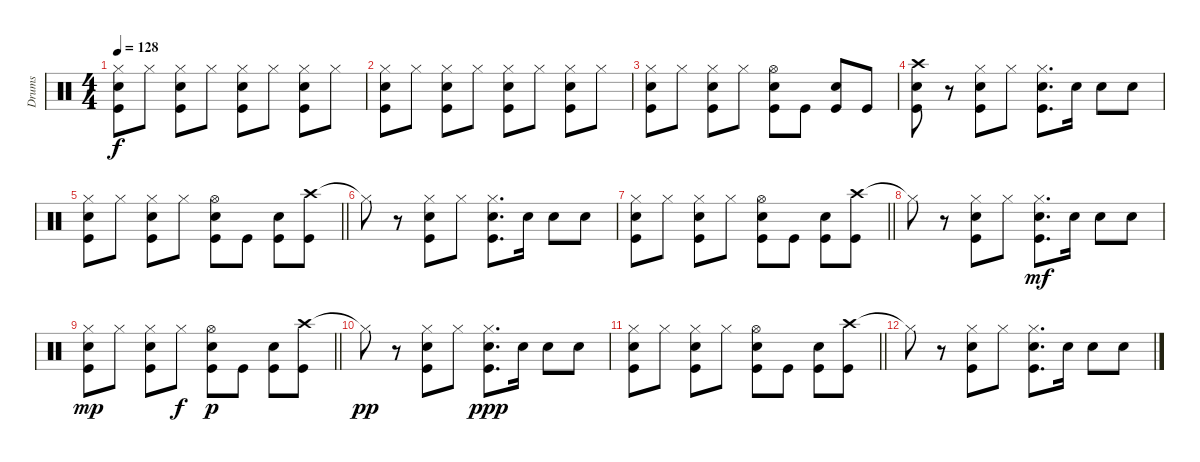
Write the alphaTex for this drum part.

\track ("Drums" "Drums") {instrument percussion}
\staff {score}
\articulation defaults
\ts (4 4)
\tempo 128
\clef neutral
\ks c
("Hi-Hat (closed)" "Snare (hit) 2" "Kick (hit)").8{dy f} "Hi-Hat (closed)".8 ("Hi-Hat (closed)" "Snare (hit) 2" "Kick (hit)").8 "Hi-Hat (closed)".8 ("Hi-Hat (closed)" "Snare (hit) 2" "Kick (hit)").8 "Hi-Hat (closed)".8 ("Hi-Hat (closed)" "Snare (hit) 2" "Kick (hit)").8 "Hi-Hat (closed)".8 |
("Hi-Hat (closed)" "Snare (hit) 2" "Kick (hit)").8 "Hi-Hat (closed)".8 ("Hi-Hat (closed)" "Snare (hit) 2" "Kick (hit)").8 "Hi-Hat (closed)".8 ("Hi-Hat (closed)" "Snare (hit) 2" "Kick (hit)").8 "Hi-Hat (closed)".8 ("Hi-Hat (closed)" "Snare (hit) 2" "Kick (hit)").8 "Hi-Hat (closed)".8 |
("Hi-Hat (closed)" "Snare (hit) 2" "Kick (hit)").8 "Hi-Hat (closed)".8 ("Hi-Hat (closed)" "Snare (hit) 2" "Kick (hit)").8 "Hi-Hat (closed)".8 ("Hi-Hat (open)" "Snare (hit) 2" "Kick (hit)").8 "Kick (hit)".8 ("Snare (hit) 2" "Kick (hit)").8 "Kick (hit)".8 |
("Crash high (hit)" "Snare (hit) 2" "Kick (hit)").8 r.8 ("Hi-Hat (closed)" "Snare (hit) 2" "Kick (hit)").8 "Hi-Hat (closed)".8 ("Hi-Hat (closed)" "Kick (hit)" "Snare (hit) 2").8{d} "Snare (hit) 2".16 "Snare (hit) 2".8 "Snare (hit) 2".8 |
\barLineRight lightlight
("Hi-Hat (closed)" "Snare (hit) 2" "Kick (hit)").8 "Hi-Hat (closed)".8 ("Hi-Hat (closed)" "Snare (hit) 2" "Kick (hit)").8 "Hi-Hat (closed)".8 ("Hi-Hat (open)" "Snare (hit) 2" "Kick (hit)").8 "Kick (hit)".8 ("Snare (hit) 2" "Kick (hit)").8 ("Crash high (hit)" "Kick (hit)").8 |
"Hi-Hat (closed)"{t}.8 r.8 ("Hi-Hat (closed)" "Snare (hit) 2" "Kick (hit)").8 "Hi-Hat (closed)".8 ("Hi-Hat (closed)" "Kick (hit)" "Snare (hit) 2").8{d} "Snare (hit) 2".16 "Snare (hit) 2".8 "Snare (hit) 2".8 |
\barLineRight lightlight
("Hi-Hat (closed)" "Snare (hit) 2" "Kick (hit)").8 "Hi-Hat (closed)".8 ("Hi-Hat (closed)" "Snare (hit) 2" "Kick (hit)").8 "Hi-Hat (closed)".8 ("Hi-Hat (open)" "Snare (hit) 2" "Kick (hit)").8 "Kick (hit)".8 ("Snare (hit) 2" "Kick (hit)").8 ("Crash high (hit)" "Kick (hit)").8 |
"Hi-Hat (closed)"{t}.8 r.8 ("Hi-Hat (closed)" "Snare (hit) 2" "Kick (hit)").8 "Hi-Hat (closed)".8 ("Hi-Hat (closed)" "Kick (hit)" "Snare (hit) 2").8{d dy mf} "Snare (hit) 2".16 "Snare (hit) 2".8 "Snare (hit) 2".8 |
\barLineRight lightlight
("Hi-Hat (closed)" "Snare (hit) 2" "Kick (hit)").8{dy mp} "Hi-Hat (closed)".8 ("Hi-Hat (closed)" "Snare (hit) 2" "Kick (hit)").8 "Hi-Hat (closed)".8{dy f} ("Hi-Hat (open)" "Snare (hit) 2" "Kick (hit)").8{dy p} "Kick (hit)".8 ("Snare (hit) 2" "Kick (hit)").8 ("Crash high (hit)" "Kick (hit)").8 |
"Hi-Hat (closed)"{t}.8{dy pp} r.8 ("Hi-Hat (closed)" "Snare (hit) 2" "Kick (hit)").8 "Hi-Hat (closed)".8 ("Hi-Hat (closed)" "Kick (hit)" "Snare (hit) 2").8{d dy ppp} "Snare (hit) 2".16 "Snare (hit) 2".8 "Snare (hit) 2".8 |
\barLineRight lightlight
("Hi-Hat (closed)" "Snare (hit) 2" "Kick (hit)").8 "Hi-Hat (closed)".8 ("Hi-Hat (closed)" "Snare (hit) 2" "Kick (hit)").8 "Hi-Hat (closed)".8 ("Hi-Hat (open)" "Snare (hit) 2" "Kick (hit)").8 "Kick (hit)".8 ("Snare (hit) 2" "Kick (hit)").8 ("Crash high (hit)" "Kick (hit)").8 |
"Hi-Hat (closed)"{t}.8 r.8 ("Hi-Hat (closed)" "Snare (hit) 2" "Kick (hit)").8 "Hi-Hat (closed)".8 ("Hi-Hat (closed)" "Kick (hit)" "Snare (hit) 2").8{d} "Snare (hit) 2".16 "Snare (hit) 2".8 "Snare (hit) 2".8
